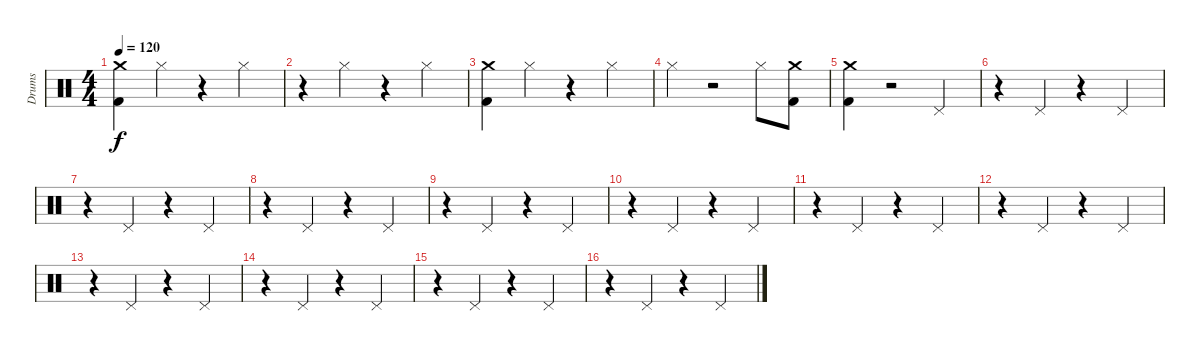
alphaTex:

\track ("Drums" "Drums") {instrument percussion}
\staff {score}
\articulation defaults
\ts (4 4)
\tempo 120
\clef neutral
\ks c
("Crash medium (hit)" "Kick (hit) 2").4{dy f} "Hi-Hat (closed)".4 r.4 "Hi-Hat (closed)".4 |
r.4 "Hi-Hat (closed)".4 r.4 "Hi-Hat (closed)".4 |
("Kick (hit) 2" "Crash medium (hit)").4 "Hi-Hat (closed)".4 r.4 "Hi-Hat (closed)".4 |
"Hi-Hat (closed)".4 r.2 "Hi-Hat (closed)".8 ("Kick (hit) 2" "Crash medium (hit)").8 |
("Crash medium (hit)" "Kick (hit) 2").4 r.2 "Pedal Hi-Hat (hit)".4 |
r.4 "Pedal Hi-Hat (hit)".4 r.4 "Pedal Hi-Hat (hit)".4 |
r.4 "Pedal Hi-Hat (hit)".4 r.4 "Pedal Hi-Hat (hit)".4 |
r.4 "Pedal Hi-Hat (hit)".4 r.4 "Pedal Hi-Hat (hit)".4 |
r.4 "Pedal Hi-Hat (hit)".4 r.4 "Pedal Hi-Hat (hit)".4 |
r.4 "Pedal Hi-Hat (hit)".4 r.4 "Pedal Hi-Hat (hit)".4 |
r.4 "Pedal Hi-Hat (hit)".4 r.4 "Pedal Hi-Hat (hit)".4 |
r.4 "Pedal Hi-Hat (hit)".4 r.4 "Pedal Hi-Hat (hit)".4 |
r.4 "Pedal Hi-Hat (hit)".4 r.4 "Pedal Hi-Hat (hit)".4 |
r.4 "Pedal Hi-Hat (hit)".4 r.4 "Pedal Hi-Hat (hit)".4 |
r.4 "Pedal Hi-Hat (hit)".4 r.4 "Pedal Hi-Hat (hit)".4 |
r.4 "Pedal Hi-Hat (hit)".4 r.4 "Pedal Hi-Hat (hit)".4
